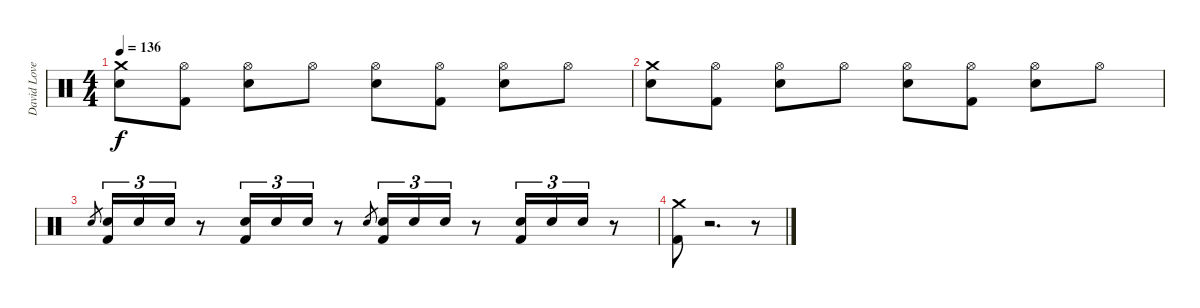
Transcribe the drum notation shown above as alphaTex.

\track ("David Lovering (Drums)" "David Love") {instrument percussion}
\staff {score}
\articulation defaults
\ts (4 4)
\tempo 136
\clef neutral
\ks c
("Crash medium (hit)" "Electric Snare (hit)").8{dy f} ("Hi-Hat (open)" "Kick (hit) 2").8 ("Hi-Hat (open)" "Electric Snare (hit)").8 "Hi-Hat (open)".8 ("Hi-Hat (open)" "Electric Snare (hit)").8 ("Hi-Hat (open)" "Kick (hit) 2").8 ("Hi-Hat (open)" "Electric Snare (hit)").8 "Hi-Hat (open)".8 |
("Crash medium (hit)" "Electric Snare (hit)").8 ("Hi-Hat (open)" "Kick (hit) 2").8 ("Hi-Hat (open)" "Electric Snare (hit)").8 "Hi-Hat (open)".8 ("Hi-Hat (open)" "Electric Snare (hit)").8 ("Hi-Hat (open)" "Kick (hit) 2").8 ("Hi-Hat (open)" "Electric Snare (hit)").8 "Hi-Hat (open)".8 |
"Electric Snare (hit)".8{gr} ("Electric Snare (hit)" "Kick (hit) 2").16{tu (3 2)} "Electric Snare (hit)".16{tu (3 2)} "Electric Snare (hit)".16{tu (3 2)} r.8 ("Electric Snare (hit)" "Kick (hit) 2").16{tu (3 2)} "Electric Snare (hit)".16{tu (3 2)} "Electric Snare (hit)".16{tu (3 2)} r.8 "Electric Snare (hit)".8{gr} ("Electric Snare (hit)" "Kick (hit) 2").16{tu (3 2)} "Electric Snare (hit)".16{tu (3 2)} "Electric Snare (hit)".16{tu (3 2)} r.8 ("Electric Snare (hit)" "Kick (hit) 2").16{tu (3 2)} "Electric Snare (hit)".16{tu (3 2)} "Electric Snare (hit)".16{tu (3 2)} r.8 |
("Crash medium (hit)" "Kick (hit) 2").8 r.2{d volume 0} r.8
